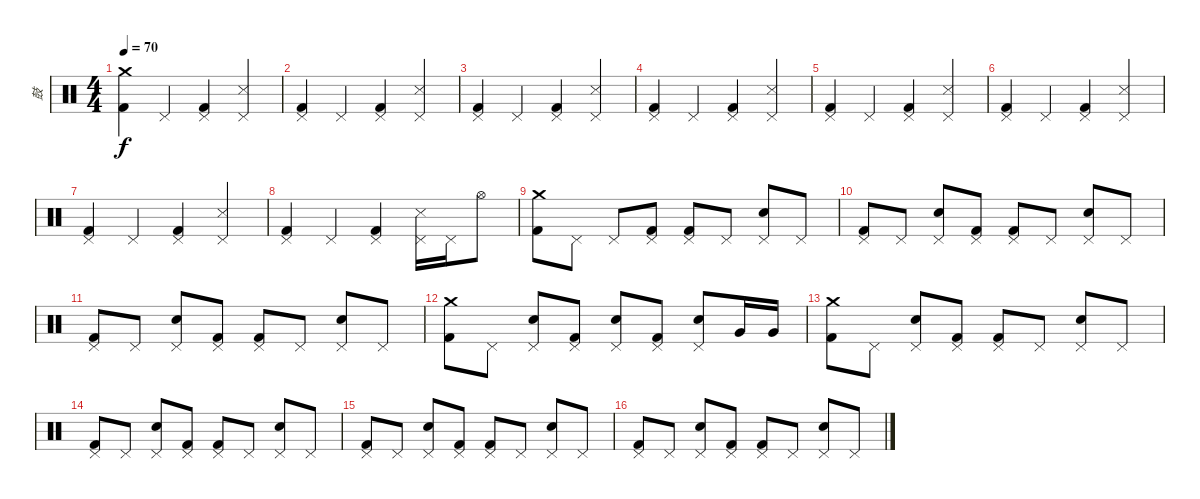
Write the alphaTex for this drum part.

\track ("鼓" "鼓") {instrument percussion}
\staff {score}
\articulation defaults
\ts (4 4)
\tempo 70
\clef neutral
\ks c
("Crash medium (hit)" "Kick (hit) 2").4{dy f} "Pedal Hi-Hat (hit)".4 ("Pedal Hi-Hat (hit)" "Kick (hit) 2").4 ("Pedal Hi-Hat (hit)" "Snare (side stick) 3").4 |
("Pedal Hi-Hat (hit)" "Kick (hit) 2").4 "Pedal Hi-Hat (hit)".4 ("Pedal Hi-Hat (hit)" "Kick (hit) 2").4 ("Pedal Hi-Hat (hit)" "Snare (side stick) 3").4 |
("Pedal Hi-Hat (hit)" "Kick (hit) 2").4 "Pedal Hi-Hat (hit)".4 ("Pedal Hi-Hat (hit)" "Kick (hit) 2").4 ("Pedal Hi-Hat (hit)" "Snare (side stick) 3").4 |
("Pedal Hi-Hat (hit)" "Kick (hit) 2").4 "Pedal Hi-Hat (hit)".4 ("Pedal Hi-Hat (hit)" "Kick (hit) 2").4 ("Pedal Hi-Hat (hit)" "Snare (side stick) 3").4 |
("Pedal Hi-Hat (hit)" "Kick (hit) 2").4 "Pedal Hi-Hat (hit)".4 ("Pedal Hi-Hat (hit)" "Kick (hit) 2").4 ("Pedal Hi-Hat (hit)" "Snare (side stick) 3").4 |
("Pedal Hi-Hat (hit)" "Kick (hit) 2").4 "Pedal Hi-Hat (hit)".4 ("Pedal Hi-Hat (hit)" "Kick (hit) 2").4 ("Pedal Hi-Hat (hit)" "Snare (side stick) 3").4 |
("Pedal Hi-Hat (hit)" "Kick (hit) 2").4 "Pedal Hi-Hat (hit)".4 ("Pedal Hi-Hat (hit)" "Kick (hit) 2").4 ("Pedal Hi-Hat (hit)" "Snare (side stick) 3").4 |
("Pedal Hi-Hat (hit)" "Kick (hit) 2").4 "Pedal Hi-Hat (hit)".4 ("Pedal Hi-Hat (hit)" "Kick (hit) 2").4 ("Pedal Hi-Hat (hit)" "Snare (side stick) 3").16 "Pedal Hi-Hat (hit)".16 "Hi-Hat (open)".8 |
("Crash medium (hit)" "Kick (hit) 2").8 "Pedal Hi-Hat (hit)".8 "Pedal Hi-Hat (hit)".8 ("Pedal Hi-Hat (hit)" "Kick (hit) 2").8 ("Pedal Hi-Hat (hit)" "Kick (hit) 2").8 "Pedal Hi-Hat (hit)".8 ("Pedal Hi-Hat (hit)" "Snare (hit) 2").8 "Pedal Hi-Hat (hit)".8 |
("Pedal Hi-Hat (hit)" "Kick (hit) 2").8 "Pedal Hi-Hat (hit)".8 ("Pedal Hi-Hat (hit)" "Snare (hit) 2").8 ("Pedal Hi-Hat (hit)" "Kick (hit) 2").8 ("Pedal Hi-Hat (hit)" "Kick (hit) 2").8 "Pedal Hi-Hat (hit)".8 ("Pedal Hi-Hat (hit)" "Snare (hit) 2").8 "Pedal Hi-Hat (hit)".8 |
("Pedal Hi-Hat (hit)" "Kick (hit) 2").8 "Pedal Hi-Hat (hit)".8 ("Pedal Hi-Hat (hit)" "Snare (hit) 2").8 ("Pedal Hi-Hat (hit)" "Kick (hit) 2").8 ("Pedal Hi-Hat (hit)" "Kick (hit) 2").8 "Pedal Hi-Hat (hit)".8 ("Pedal Hi-Hat (hit)" "Snare (hit) 2").8 "Pedal Hi-Hat (hit)".8 |
("Crash medium (hit)" "Kick (hit) 2").8 "Pedal Hi-Hat (hit)".8 ("Pedal Hi-Hat (hit)" "Snare (hit) 2").8 ("Pedal Hi-Hat (hit)" "Kick (hit) 2").8 ("Pedal Hi-Hat (hit)" "Snare (hit) 2").8 ("Pedal Hi-Hat (hit)" "Kick (hit) 2").8 ("Pedal Hi-Hat (hit)" "Snare (hit) 2").8 "Very Low Tom (hit)".16 "Very Low Tom (hit)".16 |
("Crash medium (hit)" "Kick (hit) 2").8 "Pedal Hi-Hat (hit)".8 ("Pedal Hi-Hat (hit)" "Snare (hit) 2").8 ("Pedal Hi-Hat (hit)" "Kick (hit) 2").8 ("Pedal Hi-Hat (hit)" "Kick (hit) 2").8 "Pedal Hi-Hat (hit)".8 ("Pedal Hi-Hat (hit)" "Snare (hit) 2").8 "Pedal Hi-Hat (hit)".8 |
("Pedal Hi-Hat (hit)" "Kick (hit) 2").8 "Pedal Hi-Hat (hit)".8 ("Pedal Hi-Hat (hit)" "Snare (hit) 2").8 ("Pedal Hi-Hat (hit)" "Kick (hit) 2").8 ("Pedal Hi-Hat (hit)" "Kick (hit) 2").8 "Pedal Hi-Hat (hit)".8 ("Pedal Hi-Hat (hit)" "Snare (hit) 2").8 "Pedal Hi-Hat (hit)".8 |
("Pedal Hi-Hat (hit)" "Kick (hit) 2").8 "Pedal Hi-Hat (hit)".8 ("Pedal Hi-Hat (hit)" "Snare (hit) 2").8 ("Pedal Hi-Hat (hit)" "Kick (hit) 2").8 ("Pedal Hi-Hat (hit)" "Kick (hit) 2").8 "Pedal Hi-Hat (hit)".8 ("Pedal Hi-Hat (hit)" "Snare (hit) 2").8 "Pedal Hi-Hat (hit)".8 |
("Pedal Hi-Hat (hit)" "Kick (hit) 2").8 "Pedal Hi-Hat (hit)".8 ("Pedal Hi-Hat (hit)" "Snare (hit) 2").8 ("Pedal Hi-Hat (hit)" "Kick (hit) 2").8 ("Pedal Hi-Hat (hit)" "Kick (hit) 2").8 "Pedal Hi-Hat (hit)".8 ("Pedal Hi-Hat (hit)" "Snare (hit) 2").8 "Pedal Hi-Hat (hit)".8
